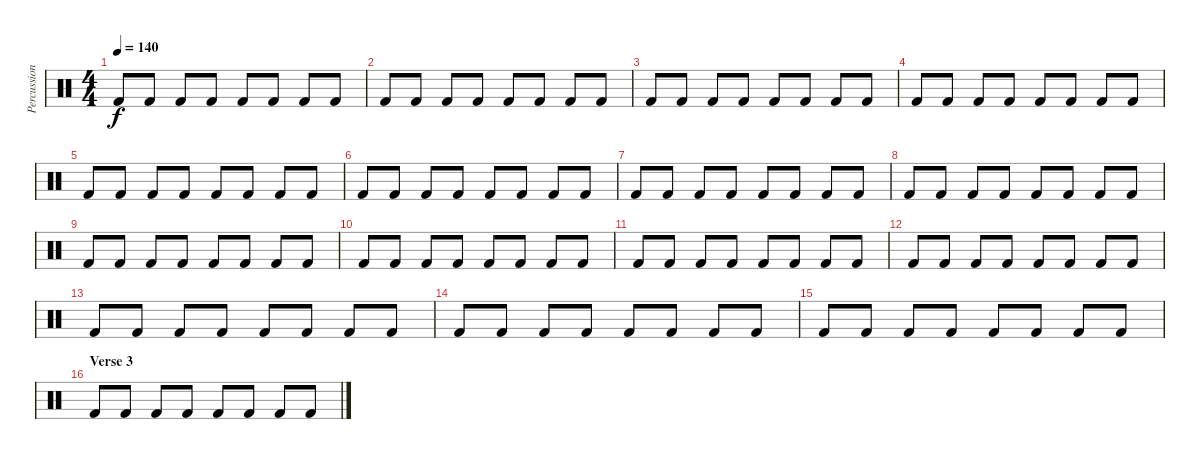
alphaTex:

\track ("Percussion" "Percussion") {instrument percussion}
\staff {score}
\articulation defaults
\ts (4 4)
\tempo 140
\clef neutral
\ks c "Kick (hit) 2".8{dy f} "Kick (hit) 2".8 "Kick (hit) 2".8 "Kick (hit) 2".8 "Kick (hit) 2".8 "Kick (hit) 2".8 "Kick (hit) 2".8 "Kick (hit) 2".8
|
"Kick (hit) 2".8 "Kick (hit) 2".8 "Kick (hit) 2".8 "Kick (hit) 2".8 "Kick (hit) 2".8 "Kick (hit) 2".8 "Kick (hit) 2".8 "Kick (hit) 2".8 |
"Kick (hit) 2".8 "Kick (hit) 2".8 "Kick (hit) 2".8 "Kick (hit) 2".8 "Kick (hit) 2".8 "Kick (hit) 2".8 "Kick (hit) 2".8 "Kick (hit) 2".8 |
"Kick (hit) 2".8 "Kick (hit) 2".8 "Kick (hit) 2".8 "Kick (hit) 2".8 "Kick (hit) 2".8 "Kick (hit) 2".8 "Kick (hit) 2".8 "Kick (hit) 2".8 |
"Kick (hit) 2".8 "Kick (hit) 2".8 "Kick (hit) 2".8 "Kick (hit) 2".8 "Kick (hit) 2".8 "Kick (hit) 2".8 "Kick (hit) 2".8 "Kick (hit) 2".8 |
"Kick (hit) 2".8 "Kick (hit) 2".8 "Kick (hit) 2".8 "Kick (hit) 2".8 "Kick (hit) 2".8 "Kick (hit) 2".8 "Kick (hit) 2".8 "Kick (hit) 2".8 |
"Kick (hit) 2".8 "Kick (hit) 2".8 "Kick (hit) 2".8 "Kick (hit) 2".8 "Kick (hit) 2".8 "Kick (hit) 2".8 "Kick (hit) 2".8 "Kick (hit) 2".8 |
"Kick (hit) 2".8 "Kick (hit) 2".8 "Kick (hit) 2".8 "Kick (hit) 2".8 "Kick (hit) 2".8 "Kick (hit) 2".8 "Kick (hit) 2".8 "Kick (hit) 2".8 |
"Kick (hit) 2".8 "Kick (hit) 2".8 "Kick (hit) 2".8 "Kick (hit) 2".8 "Kick (hit) 2".8 "Kick (hit) 2".8 "Kick (hit) 2".8 "Kick (hit) 2".8 |
"Kick (hit) 2".8 "Kick (hit) 2".8 "Kick (hit) 2".8 "Kick (hit) 2".8 "Kick (hit) 2".8 "Kick (hit) 2".8 "Kick (hit) 2".8 "Kick (hit) 2".8 |
"Kick (hit) 2".8 "Kick (hit) 2".8 "Kick (hit) 2".8 "Kick (hit) 2".8 "Kick (hit) 2".8 "Kick (hit) 2".8 "Kick (hit) 2".8 "Kick (hit) 2".8 |
"Kick (hit) 2".8 "Kick (hit) 2".8 "Kick (hit) 2".8 "Kick (hit) 2".8 "Kick (hit) 2".8 "Kick (hit) 2".8 "Kick (hit) 2".8 "Kick (hit) 2".8 |
"Kick (hit) 2".8 "Kick (hit) 2".8 "Kick (hit) 2".8 "Kick (hit) 2".8 "Kick (hit) 2".8 "Kick (hit) 2".8 "Kick (hit) 2".8 "Kick (hit) 2".8 |
"Kick (hit) 2".8 "Kick (hit) 2".8 "Kick (hit) 2".8 "Kick (hit) 2".8 "Kick (hit) 2".8 "Kick (hit) 2".8 "Kick (hit) 2".8 "Kick (hit) 2".8 |
"Kick (hit) 2".8 "Kick (hit) 2".8 "Kick (hit) 2".8 "Kick (hit) 2".8 "Kick (hit) 2".8 "Kick (hit) 2".8 "Kick (hit) 2".8 "Kick (hit) 2".8 |
\section ("" "Verse 3")
"Kick (hit) 2".8 "Kick (hit) 2".8 "Kick (hit) 2".8 "Kick (hit) 2".8 "Kick (hit) 2".8 "Kick (hit) 2".8 "Kick (hit) 2".8 "Kick (hit) 2".8
